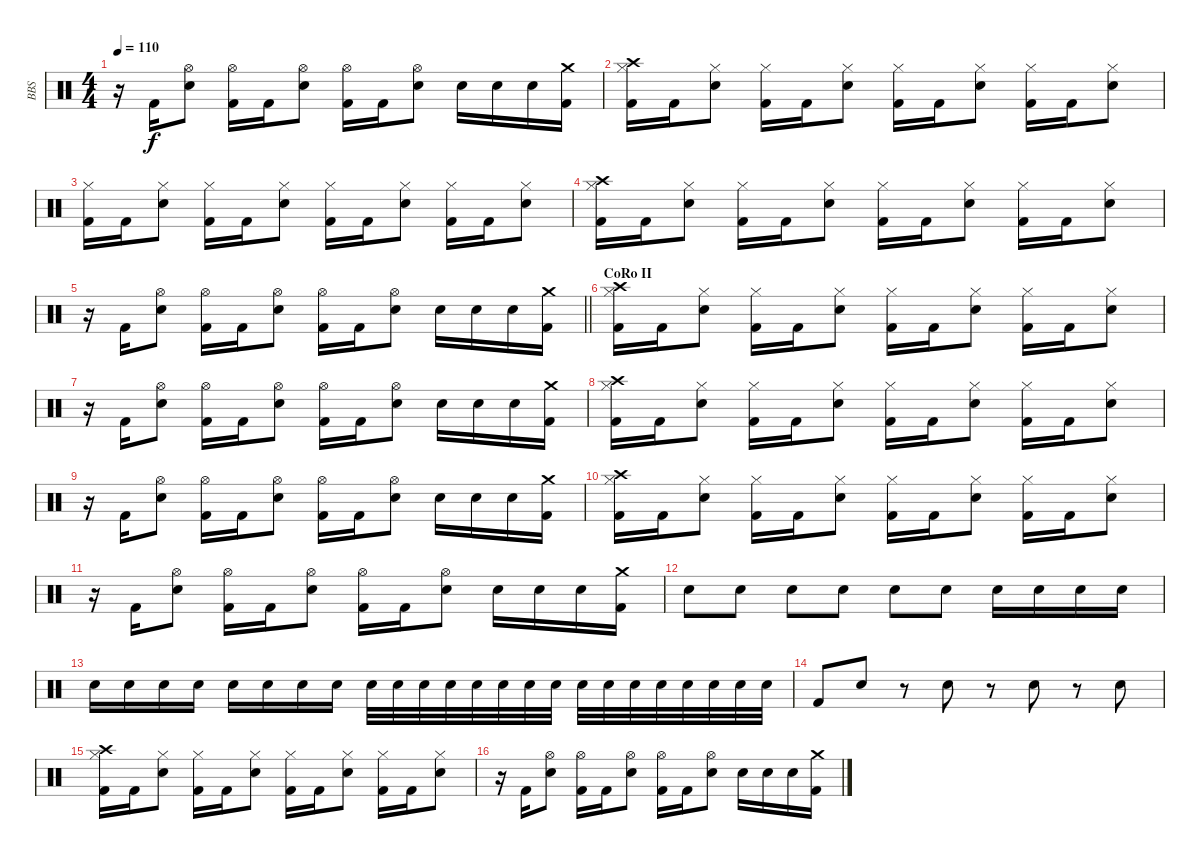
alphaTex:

\track ("BBS" "BBS") {instrument percussion}
\staff {score}
\articulation defaults
\ts (4 4)
\tempo 110
\clef neutral
\ks c
r.16{dy f} "Kick (hit) 2".16 ("Hi-Hat (open)" "Electric Snare (hit)").8 ("Hi-Hat (open)" "Kick (hit) 2").16 "Kick (hit) 2".16 ("Hi-Hat (open)" "Electric Snare (hit)").8 ("Hi-Hat (open)" "Kick (hit) 2").16 "Kick (hit) 2".16 ("Hi-Hat (open)" "Electric Snare (hit)").8 "Electric Snare (hit)".16 "Electric Snare (hit)".16 "Electric Snare (hit)".16 ("Crash medium (hit)" "Kick (hit) 2").16 |
("Crash high (hit)" "Hi-Hat (closed)" "Kick (hit) 2").16 "Kick (hit) 2".16 ("Hi-Hat (closed)" "Snare (hit) 2").8 ("Hi-Hat (closed)" "Kick (hit) 2").16 "Kick (hit) 2".16 ("Hi-Hat (closed)" "Snare (hit) 2").8 ("Hi-Hat (closed)" "Kick (hit) 2").16 "Kick (hit) 2".16 ("Hi-Hat (closed)" "Snare (hit) 2").8 ("Hi-Hat (closed)" "Kick (hit) 2").16 "Kick (hit) 2".16 ("Hi-Hat (closed)" "Snare (hit) 2").8 |
("Hi-Hat (closed)" "Kick (hit) 2").16 "Kick (hit) 2".16 ("Hi-Hat (closed)" "Snare (hit) 2").8 ("Hi-Hat (closed)" "Kick (hit) 2").16 "Kick (hit) 2".16 ("Hi-Hat (closed)" "Snare (hit) 2").8 ("Hi-Hat (closed)" "Kick (hit) 2").16 "Kick (hit) 2".16 ("Hi-Hat (closed)" "Snare (hit) 2").8 ("Hi-Hat (closed)" "Kick (hit) 2").16 "Kick (hit) 2".16 ("Hi-Hat (closed)" "Snare (hit) 2").8 |
("Crash high (hit)" "Hi-Hat (closed)" "Kick (hit) 2").16 "Kick (hit) 2".16 ("Hi-Hat (closed)" "Snare (hit) 2").8 ("Hi-Hat (closed)" "Kick (hit) 2").16 "Kick (hit) 2".16 ("Hi-Hat (closed)" "Snare (hit) 2").8 ("Hi-Hat (closed)" "Kick (hit) 2").16 "Kick (hit) 2".16 ("Hi-Hat (closed)" "Snare (hit) 2").8 ("Hi-Hat (closed)" "Kick (hit) 2").16 "Kick (hit) 2".16 ("Hi-Hat (closed)" "Snare (hit) 2").8 |
\barLineRight lightlight
r.16 "Kick (hit) 2".16 ("Hi-Hat (open)" "Electric Snare (hit)").8 ("Hi-Hat (open)" "Kick (hit) 2").16 "Kick (hit) 2".16 ("Hi-Hat (open)" "Electric Snare (hit)").8 ("Hi-Hat (open)" "Kick (hit) 2").16 "Kick (hit) 2".16 ("Hi-Hat (open)" "Electric Snare (hit)").8 "Electric Snare (hit)".16 "Electric Snare (hit)".16 "Electric Snare (hit)".16 ("Crash medium (hit)" "Kick (hit) 2").16 |
\section ("" "CoRo II")
("Crash high (hit)" "Hi-Hat (closed)" "Kick (hit) 2").16 "Kick (hit) 2".16 ("Hi-Hat (closed)" "Snare (hit) 2").8 ("Hi-Hat (closed)" "Kick (hit) 2").16 "Kick (hit) 2".16 ("Hi-Hat (closed)" "Snare (hit) 2").8 ("Hi-Hat (closed)" "Kick (hit) 2").16 "Kick (hit) 2".16 ("Hi-Hat (closed)" "Snare (hit) 2").8 ("Hi-Hat (closed)" "Kick (hit) 2").16 "Kick (hit) 2".16 ("Hi-Hat (closed)" "Snare (hit) 2").8 |
r.16 "Kick (hit) 2".16 ("Hi-Hat (open)" "Electric Snare (hit)").8 ("Hi-Hat (open)" "Kick (hit) 2").16 "Kick (hit) 2".16 ("Hi-Hat (open)" "Electric Snare (hit)").8 ("Hi-Hat (open)" "Kick (hit) 2").16 "Kick (hit) 2".16 ("Hi-Hat (open)" "Electric Snare (hit)").8 "Electric Snare (hit)".16 "Electric Snare (hit)".16 "Electric Snare (hit)".16 ("Crash medium (hit)" "Kick (hit) 2").16 |
("Crash high (hit)" "Hi-Hat (closed)" "Kick (hit) 2").16 "Kick (hit) 2".16 ("Hi-Hat (closed)" "Snare (hit) 2").8 ("Hi-Hat (closed)" "Kick (hit) 2").16 "Kick (hit) 2".16 ("Hi-Hat (closed)" "Snare (hit) 2").8 ("Hi-Hat (closed)" "Kick (hit) 2").16 "Kick (hit) 2".16 ("Hi-Hat (closed)" "Snare (hit) 2").8 ("Hi-Hat (closed)" "Kick (hit) 2").16 "Kick (hit) 2".16 ("Hi-Hat (closed)" "Snare (hit) 2").8 |
r.16 "Kick (hit) 2".16 ("Hi-Hat (open)" "Electric Snare (hit)").8 ("Hi-Hat (open)" "Kick (hit) 2").16 "Kick (hit) 2".16 ("Hi-Hat (open)" "Electric Snare (hit)").8 ("Hi-Hat (open)" "Kick (hit) 2").16 "Kick (hit) 2".16 ("Hi-Hat (open)" "Electric Snare (hit)").8 "Electric Snare (hit)".16 "Electric Snare (hit)".16 "Electric Snare (hit)".16 ("Crash medium (hit)" "Kick (hit) 2").16 |
("Crash high (hit)" "Hi-Hat (closed)" "Kick (hit) 2").16 "Kick (hit) 2".16 ("Hi-Hat (closed)" "Snare (hit) 2").8 ("Hi-Hat (closed)" "Kick (hit) 2").16 "Kick (hit) 2".16 ("Hi-Hat (closed)" "Snare (hit) 2").8 ("Hi-Hat (closed)" "Kick (hit) 2").16 "Kick (hit) 2".16 ("Hi-Hat (closed)" "Snare (hit) 2").8 ("Hi-Hat (closed)" "Kick (hit) 2").16 "Kick (hit) 2".16 ("Hi-Hat (closed)" "Snare (hit) 2").8 |
r.16 "Kick (hit) 2".16 ("Hi-Hat (open)" "Electric Snare (hit)").8 ("Hi-Hat (open)" "Kick (hit) 2").16 "Kick (hit) 2".16 ("Hi-Hat (open)" "Electric Snare (hit)").8 ("Hi-Hat (open)" "Kick (hit) 2").16 "Kick (hit) 2".16 ("Hi-Hat (open)" "Electric Snare (hit)").8 "Electric Snare (hit)".16 "Electric Snare (hit)".16 "Electric Snare (hit)".16 ("Crash medium (hit)" "Kick (hit) 2").16 |
"Snare (hit) 2".8 "Snare (hit) 2".8 "Snare (hit) 2".8 "Snare (hit) 2".8 "Snare (hit) 2".8 "Snare (hit) 2".8 "Snare (hit) 2".16 "Snare (hit) 2".16 "Snare (hit) 2".16 "Snare (hit) 2".16 |
"Snare (hit) 2".16 "Snare (hit) 2".16 "Snare (hit) 2".16 "Snare (hit) 2".16 "Snare (hit) 2".16 "Snare (hit) 2".16 "Snare (hit) 2".16 "Snare (hit) 2".16 "Snare (hit) 2".32 "Snare (hit) 2".32 "Snare (hit) 2".32 "Snare (hit) 2".32 "Snare (hit) 2".32 "Snare (hit) 2".32 "Snare (hit) 2".32 "Snare (hit) 2".32 "Snare (hit) 2".32 "Snare (hit) 2".32 "Snare (hit) 2".32 "Snare (hit) 2".32 "Snare (hit) 2".32 "Snare (hit) 2".32 "Snare (hit) 2".32 "Snare (hit) 2".32 |
"Kick (hit) 2".8 "Snare (hit) 2".8 r.8 "Snare (hit) 2".8 r.8 "Snare (hit) 2".8 r.8 "Snare (hit) 2".8 |
("Crash high (hit)" "Hi-Hat (closed)" "Kick (hit) 2").16 "Kick (hit) 2".16 ("Hi-Hat (closed)" "Snare (hit) 2").8 ("Hi-Hat (closed)" "Kick (hit) 2").16 "Kick (hit) 2".16 ("Hi-Hat (closed)" "Snare (hit) 2").8 ("Hi-Hat (closed)" "Kick (hit) 2").16 "Kick (hit) 2".16 ("Hi-Hat (closed)" "Snare (hit) 2").8 ("Hi-Hat (closed)" "Kick (hit) 2").16 "Kick (hit) 2".16 ("Hi-Hat (closed)" "Snare (hit) 2").8 |
r.16 "Kick (hit) 2".16 ("Hi-Hat (open)" "Electric Snare (hit)").8 ("Hi-Hat (open)" "Kick (hit) 2").16 "Kick (hit) 2".16 ("Hi-Hat (open)" "Electric Snare (hit)").8 ("Hi-Hat (open)" "Kick (hit) 2").16 "Kick (hit) 2".16 ("Hi-Hat (open)" "Electric Snare (hit)").8 "Electric Snare (hit)".16 "Electric Snare (hit)".16 "Electric Snare (hit)".16 ("Crash medium (hit)" "Kick (hit) 2").16
